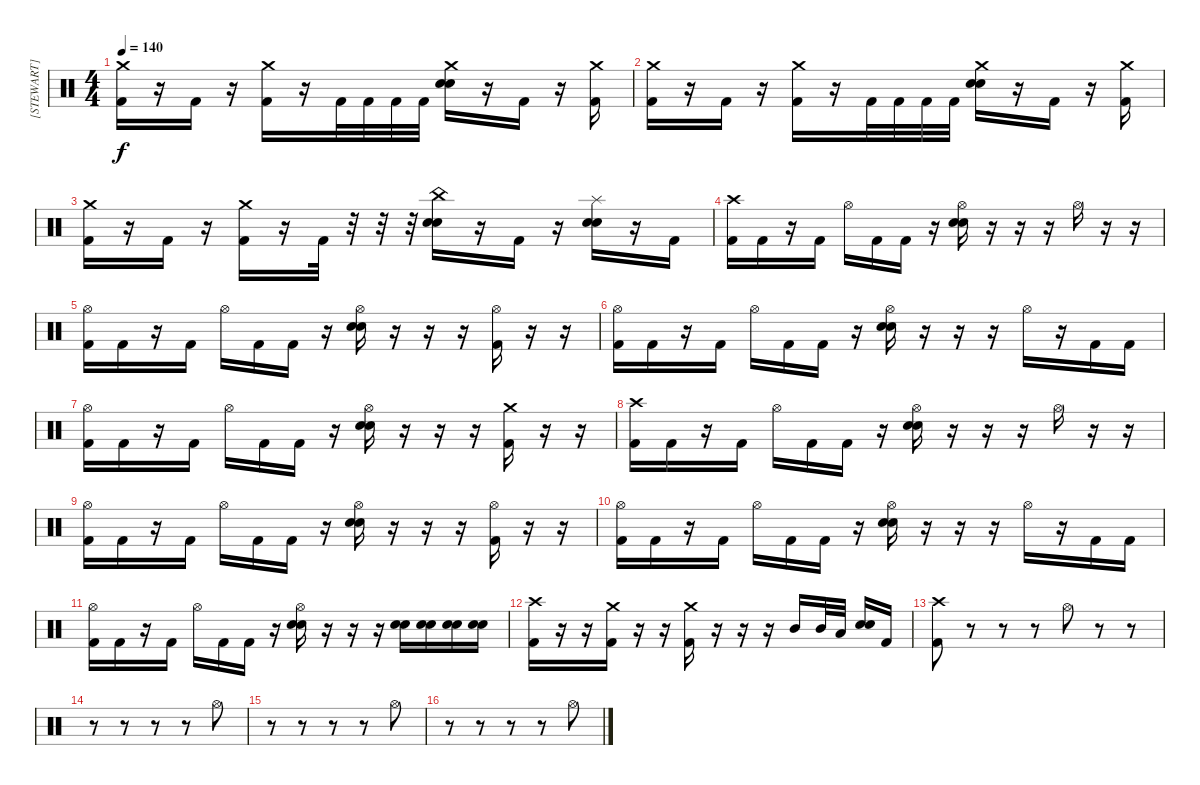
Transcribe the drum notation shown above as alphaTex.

\track ("[STEWART]" "[STEWART]") {instrument percussion}
\staff {score}
\articulation defaults
\ts (4 4)
\tempo 140
\clef neutral
\ks c
("Crash medium (hit)" "Kick (hit) 2").16{dy f} r.16 "Kick (hit) 2".16 r.16 ("Crash medium (hit)" "Kick (hit) 2").16 r.16 "Kick (hit) 2".32 "Kick (hit) 2".32 "Kick (hit) 2".32 "Kick (hit) 2".32 ("Crash medium (hit)" "Electric Snare (hit)" "Snare (hit) 2").16 r.16 "Kick (hit) 2".16 r.16 ("Crash medium (hit)" "Kick (hit) 2").16 |
("Crash medium (hit)" "Kick (hit) 2").16 r.16 "Kick (hit) 2".16 r.16 ("Crash medium (hit)" "Kick (hit) 2").16 r.16 "Kick (hit) 2".32 "Kick (hit) 2".32 "Kick (hit) 2".32 "Kick (hit) 2".32 ("Crash medium (hit)" "Electric Snare (hit)" "Snare (hit) 2").16 r.16 "Kick (hit) 2".16 r.16 ("Crash medium (hit)" "Kick (hit) 2").16 |
("Crash medium (hit)" "Kick (hit) 2").16 r.16 "Kick (hit) 2".16 r.16 ("Crash medium (hit)" "Kick (hit) 2").16 r.16 "Kick (hit) 2".32 r.32 r.32 r.32 ("China (hit)" "Electric Snare (hit)" "Snare (hit) 2").16 r.16 "Kick (hit) 2".16 r.16 ("Splash (hit)" "Snare (hit) 2" "Electric Snare (hit)").16 r.16 "Kick (hit) 2".16 |
("Crash high (hit)" "Kick (hit) 2").16 "Kick (hit) 2".16 r.16 "Kick (hit) 2".16 "Hi-Hat (open)".16 "Kick (hit) 2".16 "Kick (hit) 2".16 r.16 ("Hi-Hat (open)" "Electric Snare (hit)" "Snare (hit) 2").16 r.16 r.16 r.16 "Hi-Hat (open)".16 r.16 r.16 |
("Hi-Hat (open)" "Kick (hit) 2").16 "Kick (hit) 2".16 r.16 "Kick (hit) 2".16 "Hi-Hat (open)".16 "Kick (hit) 2".16 "Kick (hit) 2".16 r.16 ("Hi-Hat (open)" "Electric Snare (hit)" "Snare (hit) 2").16 r.16 r.16 r.16 ("Hi-Hat (open)" "Kick (hit) 2").16 r.16 r.16 |
("Hi-Hat (open)" "Kick (hit) 2").16 "Kick (hit) 2".16 r.16 "Kick (hit) 2".16 "Hi-Hat (open)".16 "Kick (hit) 2".16 "Kick (hit) 2".16 r.16 ("Hi-Hat (open)" "Electric Snare (hit)" "Snare (hit) 2").16 r.16 r.16 r.16 "Hi-Hat (open)".16 r.16 "Kick (hit) 2".16 "Kick (hit) 2".16 |
("Hi-Hat (open)" "Kick (hit) 2").16 "Kick (hit) 2".16 r.16 "Kick (hit) 2".16 "Hi-Hat (open)".16 "Kick (hit) 2".16 "Kick (hit) 2".16 r.16 ("Hi-Hat (open)" "Electric Snare (hit)" "Snare (hit) 2").16 r.16 r.16 r.16 ("Crash medium (hit)" "Kick (hit) 2").16 r.16 r.16 |
("Crash high (hit)" "Kick (hit) 2").16 "Kick (hit) 2".16 r.16 "Kick (hit) 2".16 "Hi-Hat (open)".16 "Kick (hit) 2".16 "Kick (hit) 2".16 r.16 ("Hi-Hat (open)" "Electric Snare (hit)" "Snare (hit) 2").16 r.16 r.16 r.16 "Hi-Hat (open)".16 r.16 r.16 |
("Hi-Hat (open)" "Kick (hit) 2").16 "Kick (hit) 2".16 r.16 "Kick (hit) 2".16 "Hi-Hat (open)".16 "Kick (hit) 2".16 "Kick (hit) 2".16 r.16 ("Hi-Hat (open)" "Electric Snare (hit)" "Snare (hit) 2").16 r.16 r.16 r.16 ("Hi-Hat (open)" "Kick (hit) 2").16 r.16 r.16 |
("Hi-Hat (open)" "Kick (hit) 2").16 "Kick (hit) 2".16 r.16 "Kick (hit) 2".16 "Hi-Hat (open)".16 "Kick (hit) 2".16 "Kick (hit) 2".16 r.16 ("Hi-Hat (open)" "Electric Snare (hit)" "Snare (hit) 2").16 r.16 r.16 r.16 "Hi-Hat (open)".16 r.16 "Kick (hit) 2".16 "Kick (hit) 2".16 |
("Hi-Hat (open)" "Kick (hit) 2").16 "Kick (hit) 2".16 r.16 "Kick (hit) 2".16 "Hi-Hat (open)".16 "Kick (hit) 2".16 "Kick (hit) 2".16 r.16 ("Hi-Hat (open)" "Electric Snare (hit)" "Snare (hit) 2").16 r.16 r.16 r.16 ("Electric Snare (hit)" "Snare (hit) 2").16 ("Electric Snare (hit)" "Snare (hit) 2").16 ("Electric Snare (hit)" "Snare (hit) 2").16 ("Electric Snare (hit)" "Snare (hit) 2").16 |
("Crash high (hit)" "Kick (hit) 2").16 r.16 r.16 ("Crash medium (hit)" "Kick (hit) 2").16 r.16 r.16 ("Crash medium (hit)" "Kick (hit) 2").16 r.16 r.16 r.16 "Mid Tom (hit)".16 "Mid Tom (hit)".32 "Low Tom (hit)".32 ("Electric Snare (hit)" "Snare (hit) 2").16 "Kick (hit) 2".16 |
("Crash high (hit)" "Kick (hit) 2").8 r.8 r.8 r.8 "Hi-Hat (open)".8 r.8 r.8 |
r.8 r.8 r.8 r.8 "Hi-Hat (open)".8 |
r.8 r.8 r.8 r.8 "Hi-Hat (open)".8 |
r.8 r.8 r.8 r.8 "Hi-Hat (open)".8
